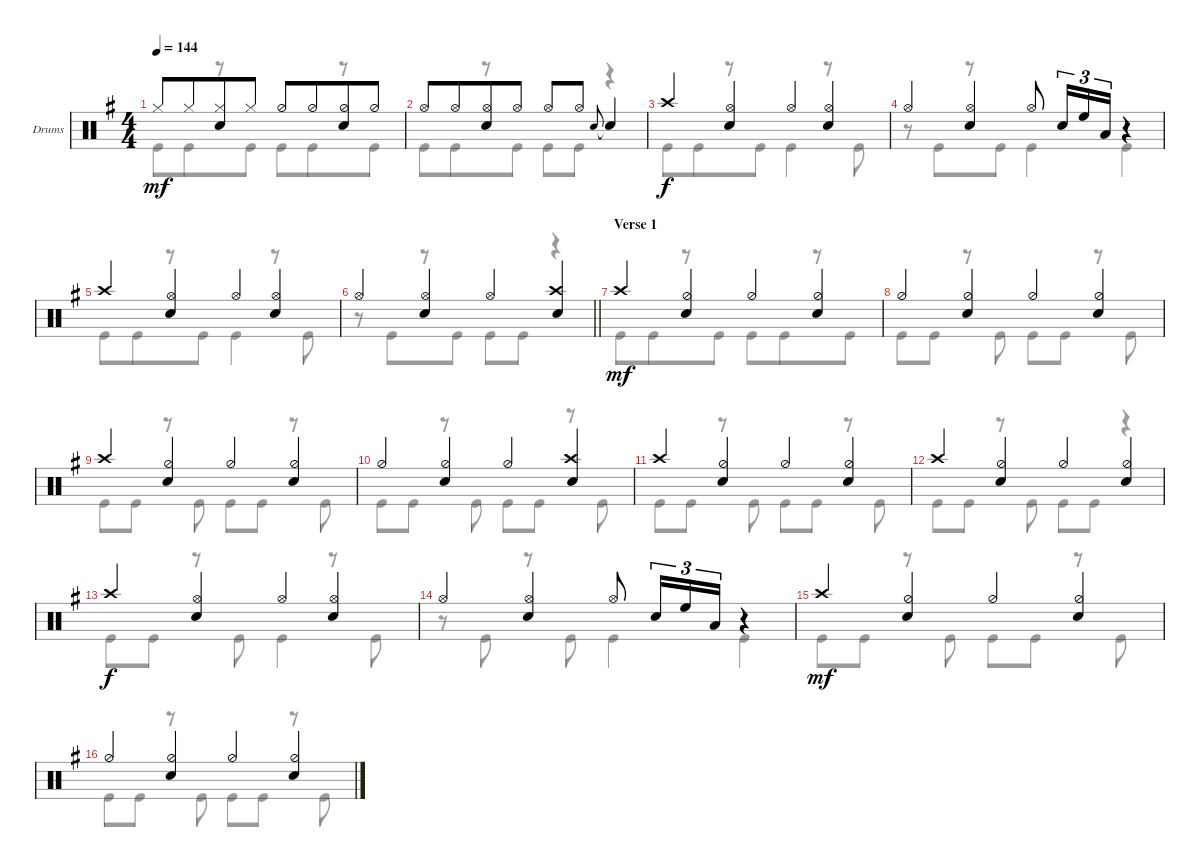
\bracketExtendMode groupsimilarinstruments
\firstSystemTrackNameOrientation horizontal
\otherSystemsTrackNameOrientation horizontal
\track ("Drumkit" "Drums") {instrument percussion}
\staff {score}
\articulation defaults
\voice
\ts (4 4)
\beaming (8 4 4 4 2)
\tempo 144
\clef neutral
\scale
0.502183
\ks g "Hi-Hat (closed)".8{dy mf} "Hi-Hat (closed)".8
("Hi-Hat (closed)" "Snare (hit) 2").8 "Hi-Hat (closed)".8 "Hi-Hat (half)".8 "Hi-Hat (half)".8 ("Hi-Hat (half)" "Snare (hit) 2").8 "Hi-Hat (half)".8 |
\scale
0.248908 "Hi-Hat (open)".8 "Hi-Hat (open)".8 ("Hi-Hat (open)" "Snare (hit) 2").8 "Hi-Hat (open)".8 "Hi-Hat (open)".8 "Hi-Hat (open)".8 "Snare (hit) 2".8{gr onbeat} "Snare (hit) 2"{t}.4 |
\scale
0.333333 "Crash high (hit)".4{dy f} ("Hi-Hat (open)" "Snare (hit) 2").4 "Hi-Hat (open)".4 ("Hi-Hat (open)" "Snare (hit) 2").4 |
\scale
0.333333 "Hi-Hat (open)".4 ("Hi-Hat (open)" "Snare (hit) 2").4 "Hi-Hat (open)".8 "Snare (hit) 2".16{tu (3 2)} "High Floor Tom (hit)".16{tu (3 2)} "Low Tom (hit)".16{tu (3 2)} r.4 |
\scale
0.333333 "Crash high (hit)".4 ("Hi-Hat (open)" "Snare (hit) 2").4 "Hi-Hat (open)".4 ("Hi-Hat (open)" "Snare (hit) 2").4 |
\scale
0.333333
\barLineRight lightlight "Hi-Hat (open)".4
("Hi-Hat (open)" "Snare (hit) 2").4 "Hi-Hat (open)".4 ("Crash high (hit)" "Snare (hit) 2").4 |
\section ("" "Verse 1")
\scale
0.333333 "Crash high (hit)".4{dy mf} ("Hi-Hat (half)" "Snare (hit) 2").4 "Hi-Hat (half)".4 ("Hi-Hat (half)" "Snare (hit) 2").4 |
\beaming (8 2 2 2 2)
\scale
0.333333 "Hi-Hat (half)".4 ("Hi-Hat (half)" "Snare (hit) 2").4 "Hi-Hat (half)".4 ("Hi-Hat (half)" "Snare (hit) 2").4 |
\scale
0.333333 "Crash high (hit)".4 ("Hi-Hat (half)" "Snare (hit) 2").4 "Hi-Hat (half)".4 ("Hi-Hat (half)" "Snare (hit) 2").4 |
\scale
0.333333 "Hi-Hat (half)".4 ("Hi-Hat (half)" "Snare (hit) 2").4 "Hi-Hat (half)".4 ("Crash high (hit)" "Snare (hit) 2").4 |
\scale
0.333333 "Crash high (hit)".4 ("Hi-Hat (half)" "Snare (hit) 2").4 "Hi-Hat (half)".4 ("Hi-Hat (half)" "Snare (hit) 2").4 |
\scale
0.333333 "Crash high (hit)".4 ("Hi-Hat (half)" "Snare (hit) 2").4 "Hi-Hat (half)".4 ("Hi-Hat (half)" "Snare (hit) 2").4 |
\scale
0.333333 "Crash high (hit)".4{dy f} ("Hi-Hat (open)" "Snare (hit) 2").4 "Hi-Hat (open)".4 ("Hi-Hat (open)" "Snare (hit) 2").4 |
\scale
0.333333 "Hi-Hat (open)".4 ("Hi-Hat (open)" "Snare (hit) 2").4 "Hi-Hat (open)".8 "Snare (hit) 2".16{tu (3 2)} "High Floor Tom (hit)".16{tu (3 2)} "Low Tom (hit)".16{tu (3 2)} r.4 |
\scale
0.333333 "Crash high (hit)".4{dy mf} ("Hi-Hat (half)" "Snare (hit) 2").4 "Hi-Hat (half)".4 ("Hi-Hat (half)" "Snare (hit) 2").4 |
\scale
0.333333 "Hi-Hat (half)".4 ("Hi-Hat (half)" "Snare (hit) 2").4 "Hi-Hat (half)".4 ("Hi-Hat (half)" "Snare (hit) 2").4
\voice
\clef neutral
\ottava regular
\simile none
\scale
0.502183
\ks g "Kick (hit)".8{dy mf} "Kick (hit)".8
r.8 "Kick (hit)".8 "Kick (hit)".8 "Kick (hit)".8 r.8 "Kick (hit)".8 |
\scale
0.248908 "Kick (hit)".8 "Kick (hit)".8 r.8 "Kick (hit)".8 "Kick (hit)".8 "Kick (hit)".8 r.4 |
\scale
0.333333 "Kick (hit)".8{dy f} "Kick (hit)".8 r.8 "Kick (hit)".8 "Kick (hit)".4 r.8 "Kick (hit)".8 |
\scale
0.333333 r.8 "Kick (hit)".8 r.8 "Kick (hit)".8 "Kick (hit)".4 "Kick (hit)".4 |
\scale
0.333333 "Kick (hit)".8 "Kick (hit)".8 r.8 "Kick (hit)".8 "Kick (hit)".4 r.8 "Kick (hit)".8 |
\scale
0.333333
\barLineRight lightlight
r.8 "Kick (hit)".8 r.8 "Kick (hit)".8 "Kick (hit)".8 "Kick (hit)".8 r.4 |
\scale
0.333333 "Kick (hit)".8{dy mf} "Kick (hit)".8 r.8 "Kick (hit)".8 "Kick (hit)".8 "Kick (hit)".8 r.8 "Kick (hit)".8 |
\scale
0.333333 "Kick (hit)".8 "Kick (hit)".8 r.8 "Kick (hit)".8 "Kick (hit)".8 "Kick (hit)".8 r.8 "Kick (hit)".8 |
\scale
0.333333 "Kick (hit)".8 "Kick (hit)".8 r.8 "Kick (hit)".8 "Kick (hit)".8 "Kick (hit)".8 r.8 "Kick (hit)".8 |
\scale
0.333333 "Kick (hit)".8 "Kick (hit)".8 r.8 "Kick (hit)".8 "Kick (hit)".8 "Kick (hit)".8 r.8 "Kick (hit)".8 |
\scale
0.333333 "Kick (hit)".8 "Kick (hit)".8 r.8 "Kick (hit)".8 "Kick (hit)".8 "Kick (hit)".8 r.8 "Kick (hit)".8 |
\scale
0.333333 "Kick (hit)".8 "Kick (hit)".8 r.8 "Kick (hit)".8 "Kick (hit)".8 "Kick (hit)".8 r.4 |
\scale
0.333333 "Kick (hit)".8{dy f} "Kick (hit)".8 r.8 "Kick (hit)".8 "Kick (hit)".4 r.8 "Kick (hit)".8 |
\scale
0.333333 r.8 "Kick (hit)".8 r.8 "Kick (hit)".8 "Kick (hit)".4 "Kick (hit)".4 |
\scale
0.333333 "Kick (hit)".8{dy mf} "Kick (hit)".8 r.8 "Kick (hit)".8 "Kick (hit)".8 "Kick (hit)".8 r.8 "Kick (hit)".8 |
\scale
0.333333 "Kick (hit)".8 "Kick (hit)".8 r.8 "Kick (hit)".8 "Kick (hit)".8 "Kick (hit)".8 r.8 "Kick (hit)".8
